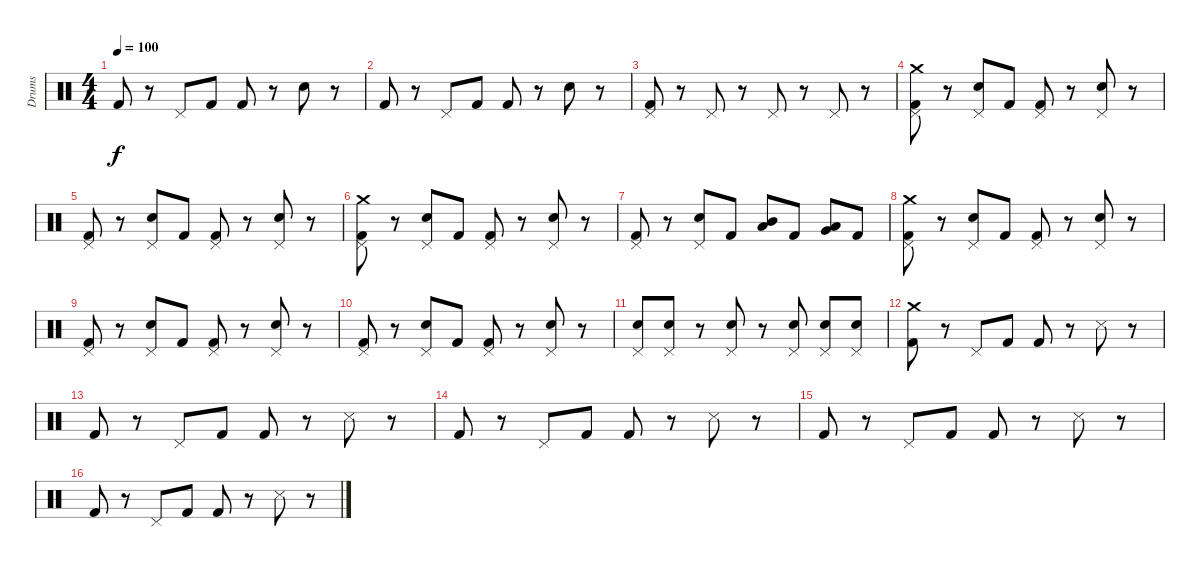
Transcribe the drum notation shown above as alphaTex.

\track ("Drums" "Drums") {instrument percussion}
\staff {score}
\articulation defaults
\ts (4 4)
\tempo 100
\clef neutral
\ks c "Kick (hit) 2".8{dy f}
r.8 "Pedal Hi-Hat (hit)".8 "Kick (hit) 2".8 "Kick (hit) 2".8 r.8 "Snare (hit) 2".8 r.8 |
"Kick (hit) 2".8 r.8 "Pedal Hi-Hat (hit)".8 "Kick (hit) 2".8 "Kick (hit) 2".8 r.8 "Snare (hit) 2".8 r.8 |
("Kick (hit) 2" "Pedal Hi-Hat (hit)").8 r.8 "Pedal Hi-Hat (hit)".8 r.8 "Pedal Hi-Hat (hit)".8 r.8 "Pedal Hi-Hat (hit)".8 r.8 |
("Pedal Hi-Hat (hit)" "Kick (hit) 2" "Crash medium (hit)").8 r.8 ("Pedal Hi-Hat (hit)" "Snare (hit) 2").8 "Kick (hit) 2".8 ("Pedal Hi-Hat (hit)" "Kick (hit) 2").8 r.8 ("Pedal Hi-Hat (hit)" "Snare (hit) 2").8 r.8 |
("Pedal Hi-Hat (hit)" "Kick (hit) 2").8 r.8 ("Pedal Hi-Hat (hit)" "Snare (hit) 2").8 "Kick (hit) 2".8 ("Pedal Hi-Hat (hit)" "Kick (hit) 2").8 r.8 ("Pedal Hi-Hat (hit)" "Snare (hit) 2").8 r.8 |
("Crash medium (hit)" "Pedal Hi-Hat (hit)" "Kick (hit) 2").8 r.8 ("Pedal Hi-Hat (hit)" "Snare (hit) 2").8 "Kick (hit) 2".8 ("Pedal Hi-Hat (hit)" "Kick (hit) 2").8 r.8 ("Pedal Hi-Hat (hit)" "Snare (hit) 2").8 r.8 |
("Pedal Hi-Hat (hit)" "Kick (hit) 2").8 r.8 ("Pedal Hi-Hat (hit)" "Snare (hit) 2").8 "Kick (hit) 2".8 ("Mid Tom (hit)" "Low Tom (hit)").8 "Kick (hit) 2".8 ("Low Tom (hit)" "Very Low Tom (hit)").8 "Kick (hit) 2".8 |
("Crash medium (hit)" "Pedal Hi-Hat (hit)" "Kick (hit) 2").8 r.8 ("Pedal Hi-Hat (hit)" "Snare (hit) 2").8 "Kick (hit) 2".8 ("Pedal Hi-Hat (hit)" "Kick (hit) 2").8 r.8 ("Pedal Hi-Hat (hit)" "Snare (hit) 2").8 r.8 |
("Pedal Hi-Hat (hit)" "Kick (hit) 2").8 r.8 ("Pedal Hi-Hat (hit)" "Snare (hit) 2").8 "Kick (hit) 2".8 ("Pedal Hi-Hat (hit)" "Kick (hit) 2").8 r.8 ("Pedal Hi-Hat (hit)" "Snare (hit) 2").8 r.8 |
("Pedal Hi-Hat (hit)" "Kick (hit) 2").8 r.8 ("Pedal Hi-Hat (hit)" "Snare (hit) 2").8 "Kick (hit) 2".8 ("Pedal Hi-Hat (hit)" "Kick (hit) 2").8 r.8 ("Pedal Hi-Hat (hit)" "Snare (hit) 2").8 r.8 |
("Pedal Hi-Hat (hit)" "Snare (hit) 2").8 ("Pedal Hi-Hat (hit)" "Snare (hit) 2").8 r.8 ("Pedal Hi-Hat (hit)" "Snare (hit) 2").8 r.8 ("Pedal Hi-Hat (hit)" "Snare (hit) 2").8 ("Pedal Hi-Hat (hit)" "Snare (hit) 2").8 ("Pedal Hi-Hat (hit)" "Snare (hit) 2").8 |
("Kick (hit) 2" "Crash medium (hit)").8 r.8 "Pedal Hi-Hat (hit)".8 "Kick (hit) 2".8 "Kick (hit) 2".8 r.8 "Snare (side stick) 3".8 r.8 |
"Kick (hit) 2".8 r.8 "Pedal Hi-Hat (hit)".8 "Kick (hit) 2".8 "Kick (hit) 2".8 r.8 "Snare (side stick) 3".8 r.8 |
"Kick (hit) 2".8 r.8 "Pedal Hi-Hat (hit)".8 "Kick (hit) 2".8 "Kick (hit) 2".8 r.8 "Snare (side stick) 3".8 r.8 |
"Kick (hit) 2".8 r.8 "Pedal Hi-Hat (hit)".8 "Kick (hit) 2".8 "Kick (hit) 2".8 r.8 "Snare (side stick) 3".8 r.8 |
"Kick (hit) 2".8 r.8 "Pedal Hi-Hat (hit)".8 "Kick (hit) 2".8 "Kick (hit) 2".8 r.8 "Snare (side stick) 3".8 r.8
